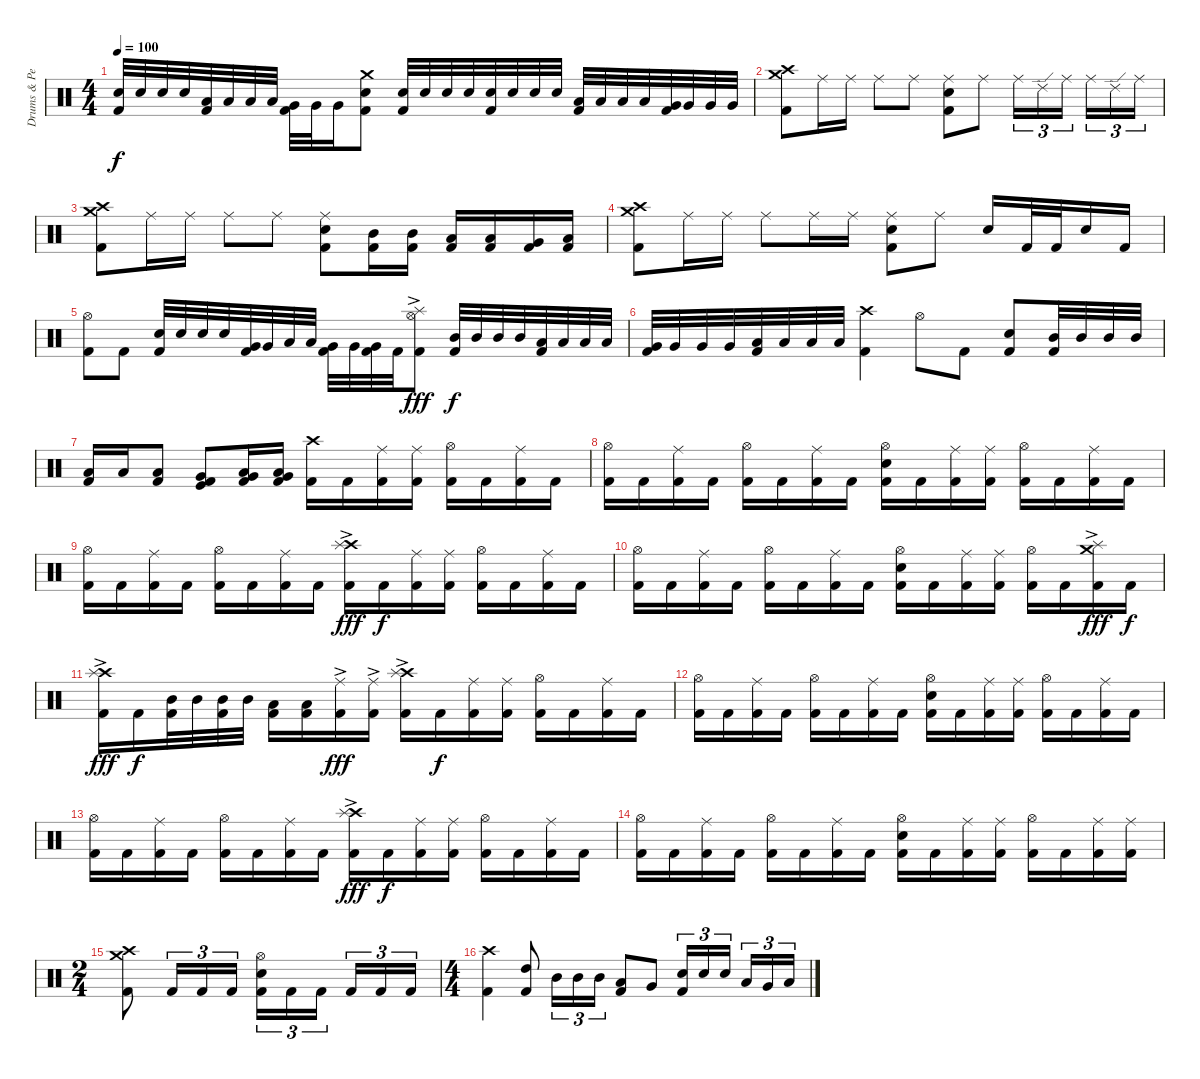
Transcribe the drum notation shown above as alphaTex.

\track ("Drums & Percussion" "Drums & Pe") {instrument percussion}
\staff {score}
\articulation defaults
\ts (4 4)
\tempo 100
\clef neutral
\ks c
("Electric Snare (hit)" "Kick (hit) 2").32{dy f} "Electric Snare (hit)".32 "Electric Snare (hit)".32 "Electric Snare (hit)".32 ("Low Tom (hit)" "Kick (hit) 2").32 "Low Tom (hit)".32 "Low Tom (hit)".32 "Low Tom (hit)".32 ("Very Low Tom (hit)" "Kick (hit) 2").32 "Very Low Tom (hit)".32 "Very Low Tom (hit)".16 ("Crash medium (hit)" "Electric Snare (hit)" "Kick (hit) 2").8 ("Electric Snare (hit)" "Kick (hit) 2").32 "Electric Snare (hit)".32 "Electric Snare (hit)".32 "Electric Snare (hit)".32 ("Electric Snare (hit)" "Kick (hit) 2").32 "Electric Snare (hit)".32 "Electric Snare (hit)".32 "Electric Snare (hit)".32 ("Low Tom (hit)" "Kick (hit) 2").32 "Low Tom (hit)".32 "Low Tom (hit)".32 "Low Tom (hit)".32 ("Very Low Tom (hit)" "Kick (hit) 2").32 "Very Low Tom (hit)".32 "Very Low Tom (hit)".32 "Very Low Tom (hit)".32 |
("Crash medium (hit)" "Crash high (hit)" "Kick (hit) 2").8 "Ride (middle)".16 "Ride (middle)".16 "Ride (middle)".8 "Ride (middle)".8 ("Ride (middle)" "Electric Snare (hit)" "Kick (hit) 2").8 "Ride (middle)".8 "Ride (middle)".16{tu (3 2)} "Ride (edge) 2".16{tu (3 2)} "Ride (middle)".16{tu (3 2) beam splitsecondary} "Ride (middle)".16{tu (3 2)} "Ride (edge) 2".16{tu (3 2)} "Ride (middle)".16{tu (3 2)} |
("Crash medium (hit)" "Crash high (hit)" "Kick (hit) 2").8 "Ride (middle)".16 "Ride (middle)".16 "Ride (middle)".8 "Ride (middle)".8 ("Ride (middle)" "Electric Snare (hit)" "Kick (hit) 2").8 ("Mid Tom (hit)" "Kick (hit) 2").16 ("Mid Tom (hit)" "Kick (hit) 2").16 ("Low Tom (hit)" "Kick (hit) 2").16 ("Low Tom (hit)" "Kick (hit) 2").16 ("Very Low Tom (hit)" "Kick (hit) 2").16 ("Low Floor Tom (hit)" "Kick (hit) 2").16 |
("Crash medium (hit)" "Crash high (hit)" "Kick (hit) 2").8 "Ride (middle)".16 "Ride (middle)".16 "Ride (middle)".8 "Ride (middle)".16 "Ride (middle)".16 ("Ride (middle)" "Electric Snare (hit)" "Kick (hit) 2").8 "Ride (middle)".8 "Electric Snare (hit)".16 "Kick (hit) 2".32 "Kick (hit) 2".32 "Electric Snare (hit)".16 "Kick (hit) 2".16 |
("Hi-Hat (open)" "Kick (hit) 2").8 "Kick (hit) 2".8 ("Electric Snare (hit)" "Kick (hit) 2").32 "Electric Snare (hit)".32 "Electric Snare (hit)".32 "Electric Snare (hit)".32 ("Very Low Tom (hit)" "Kick (hit) 2").32 "Very Low Tom (hit)".32 "Low Tom (hit)".32 "Low Tom (hit)".32 ("Very Low Tom (hit)" "Kick (hit) 2").32 "Very Low Tom (hit)".32 ("Very Low Tom (hit)" "Kick (hit) 2").32 "Kick (hit) 2".32 ("Splash (hit)" "Hi-Hat (open)"{ac} "Kick (hit) 2").8{dy fff} ("Mid Tom (hit)" "Kick (hit) 2").32{dy f} "Mid Tom (hit)".32 "Mid Tom (hit)".32 "Mid Tom (hit)".32 ("Low Tom (hit)" "Kick (hit) 2").32 "Low Tom (hit)".32 "Low Tom (hit)".32 "Low Tom (hit)".32 |
("Very Low Tom (hit)" "Kick (hit) 2").32 "Very Low Tom (hit)".32 "Very Low Tom (hit)".32 "Very Low Tom (hit)".32 ("Low Floor Tom (hit)" "Kick (hit) 2").32 "Low Floor Tom (hit)".32 "Low Floor Tom (hit)".32 "Low Floor Tom (hit)".32 ("Crash high (hit)" "Kick (hit) 2").4 "Hi-Hat (open)".8 "Kick (hit) 2".8 ("Electric Snare (hit)" "Kick (hit) 2").8 ("Mid Tom (hit)" "Kick (hit) 2").32 "Mid Tom (hit)".32 "Mid Tom (hit)".32 "Mid Tom (hit)".32 |
("Low Tom (hit)" "Kick (hit) 2").16 "Low Tom (hit)".16 ("Low Tom (hit)" "Kick (hit) 2").8 ("Very Low Tom (hit)" "Kick (hit)" "Kick (hit) 2").8 ("Low Floor Tom (hit)" "Very Low Tom (hit)" "Kick (hit) 2").16 ("Low Floor Tom (hit)" "Very Low Tom (hit)" "Kick (hit) 2").16 ("Crash high (hit)" "Kick (hit) 2").16 "Kick (hit) 2".16 ("Ride (middle)" "Kick (hit) 2").16 ("Ride (middle)" "Kick (hit) 2").16 ("Hi-Hat (open)" "Kick (hit) 2").16 "Kick (hit) 2".16 ("Ride (middle)" "Kick (hit) 2").16 "Kick (hit) 2".16 |
("Hi-Hat (open)" "Kick (hit) 2").16 "Kick (hit) 2".16 ("Ride (middle)" "Kick (hit) 2").16 "Kick (hit) 2".16 ("Hi-Hat (open)" "Kick (hit) 2").16 "Kick (hit) 2".16 ("Ride (middle)" "Kick (hit) 2").16 "Kick (hit) 2".16 ("Hi-Hat (open)" "Electric Snare (hit)" "Kick (hit) 2").16 "Kick (hit) 2".16 ("Ride (middle)" "Kick (hit) 2").16 ("Ride (middle)" "Kick (hit) 2").16 ("Hi-Hat (open)" "Kick (hit) 2").16 "Kick (hit) 2".16 ("Ride (middle)" "Kick (hit) 2").16 "Kick (hit) 2".16 |
("Hi-Hat (open)" "Kick (hit) 2").16 "Kick (hit) 2".16 ("Ride (middle)" "Kick (hit) 2").16 "Kick (hit) 2".16 ("Hi-Hat (open)" "Kick (hit) 2").16 "Kick (hit) 2".16 ("Ride (middle)" "Kick (hit) 2").16 "Kick (hit) 2".16 ("Crash high (hit)" "Splash (hit)"{ac} "Kick (hit) 2").16{dy fff} "Kick (hit) 2".16{dy f} ("Ride (middle)" "Kick (hit) 2").16 ("Ride (middle)" "Kick (hit) 2").16 ("Hi-Hat (open)" "Kick (hit) 2").16 "Kick (hit) 2".16 ("Ride (middle)" "Kick (hit) 2").16 "Kick (hit) 2".16 |
("Hi-Hat (open)" "Kick (hit) 2").16 "Kick (hit) 2".16 ("Ride (middle)" "Kick (hit) 2").16 "Kick (hit) 2".16 ("Hi-Hat (open)" "Kick (hit) 2").16 "Kick (hit) 2".16 ("Ride (middle)" "Kick (hit) 2").16 "Kick (hit) 2".16 ("Hi-Hat (open)" "Electric Snare (hit)" "Kick (hit) 2").16 "Kick (hit) 2".16 ("Ride (middle)" "Kick (hit) 2").16 ("Ride (middle)" "Kick (hit) 2").16 ("Hi-Hat (open)" "Kick (hit) 2").16 "Kick (hit) 2".16 ("Crash medium (hit)" "Splash (hit)"{ac} "Kick (hit) 2").16{dy fff} "Kick (hit) 2".16{dy f} |
("Crash high (hit)" "Splash (hit)"{ac} "Kick (hit) 2").16{dy fff} "Kick (hit) 2".16{dy f} ("Mid Tom (hit)" "Kick (hit) 2").32 "Mid Tom (hit)".32 ("Mid Tom (hit)" "Kick (hit) 2").32 "Mid Tom (hit)".32 ("Low Tom (hit)" "Kick (hit) 2").16 ("Low Tom (hit)" "Kick (hit) 2").16 ("Ride (middle)"{ac} "Kick (hit) 2").16{dy fff} ("Ride (middle)"{ac} "Kick (hit) 2").16 ("Crash high (hit)" "Splash (hit)"{ac} "Kick (hit) 2").16 "Kick (hit) 2".16{dy f} ("Ride (middle)" "Kick (hit) 2").16 ("Ride (middle)" "Kick (hit) 2").16 ("Hi-Hat (open)" "Kick (hit) 2").16 "Kick (hit) 2".16 ("Ride (middle)" "Kick (hit) 2").16 "Kick (hit) 2".16 |
("Hi-Hat (open)" "Kick (hit) 2").16 "Kick (hit) 2".16 ("Ride (middle)" "Kick (hit) 2").16 "Kick (hit) 2".16 ("Hi-Hat (open)" "Kick (hit) 2").16 "Kick (hit) 2".16 ("Ride (middle)" "Kick (hit) 2").16 "Kick (hit) 2".16 ("Hi-Hat (open)" "Electric Snare (hit)" "Kick (hit) 2").16 "Kick (hit) 2".16 ("Ride (middle)" "Kick (hit) 2").16 ("Ride (middle)" "Kick (hit) 2").16 ("Hi-Hat (open)" "Kick (hit) 2").16 "Kick (hit) 2".16 ("Ride (middle)" "Kick (hit) 2").16 "Kick (hit) 2".16 |
("Hi-Hat (open)" "Kick (hit) 2").16 "Kick (hit) 2".16 ("Ride (middle)" "Kick (hit) 2").16 "Kick (hit) 2".16 ("Hi-Hat (open)" "Kick (hit) 2").16 "Kick (hit) 2".16 ("Ride (middle)" "Kick (hit) 2").16 "Kick (hit) 2".16 ("Crash high (hit)" "Splash (hit)"{ac} "Kick (hit) 2").16{dy fff} "Kick (hit) 2".16{dy f} ("Ride (middle)" "Kick (hit) 2").16 ("Ride (middle)" "Kick (hit) 2").16 ("Hi-Hat (open)" "Kick (hit) 2").16 "Kick (hit) 2".16 ("Ride (middle)" "Kick (hit) 2").16 "Kick (hit) 2".16 |
("Hi-Hat (open)" "Kick (hit) 2").16 "Kick (hit) 2".16 ("Ride (middle)" "Kick (hit) 2").16 "Kick (hit) 2".16 ("Hi-Hat (open)" "Kick (hit) 2").16 "Kick (hit) 2".16 ("Ride (middle)" "Kick (hit) 2").16 "Kick (hit) 2".16 ("Hi-Hat (open)" "Electric Snare (hit)" "Kick (hit) 2").16 "Kick (hit) 2".16 ("Ride (middle)" "Kick (hit) 2").16 ("Ride (middle)" "Kick (hit) 2").16 ("Hi-Hat (open)" "Kick (hit) 2").16 "Kick (hit) 2".16 ("Ride (middle)" "Kick (hit) 2").16 ("Ride (middle)" "Kick (hit) 2").16 |
\ts (2 4)
("Crash high (hit)" "Crash medium (hit)" "Kick (hit) 2").8 "Kick (hit) 2".16{tu (3 2)} "Kick (hit) 2".16{tu (3 2)} "Kick (hit) 2".16{tu (3 2)} ("Hi-Hat (open)" "Electric Snare (hit)" "Kick (hit) 2").16{tu (3 2)} "Kick (hit) 2".16{tu (3 2)} "Kick (hit) 2".16{tu (3 2) beam splitsecondary} "Kick (hit) 2".16{tu (3 2)} "Kick (hit) 2".16{tu (3 2)} "Kick (hit) 2".16{tu (3 2)} |
\ts (4 4)
("Crash high (hit)" "Kick (hit) 2").4 ("High Tom (hit)" "Kick (hit) 2").8 "Mid Tom (hit)".16{tu (3 2)} "Mid Tom (hit)".16{tu (3 2)} "Mid Tom (hit)".16{tu (3 2)} ("Low Tom (hit)" "Kick (hit) 2").8 "Very Low Tom (hit)".8 ("Electric Snare (hit)" "Kick (hit) 2").16{tu (3 2)} "Electric Snare (hit)".16{tu (3 2)} "Electric Snare (hit)".16{tu (3 2) beam splitsecondary} "Low Tom (hit)".16{tu (3 2)} "Very Low Tom (hit)".16{tu (3 2)} "Low Floor Tom (hit)".16{tu (3 2)}
